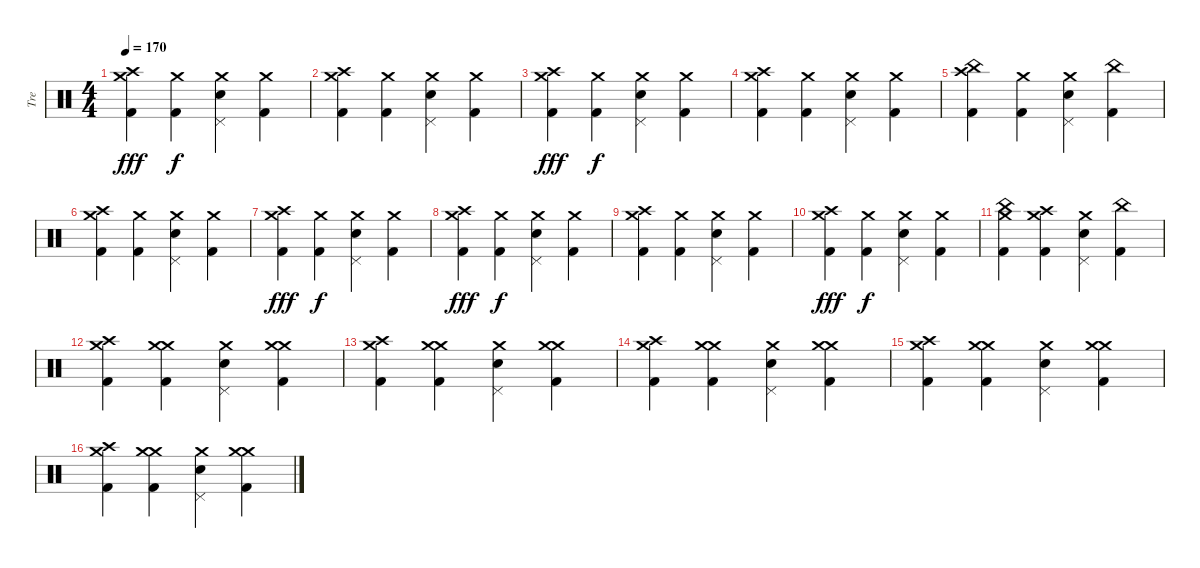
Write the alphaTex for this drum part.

\track ("Tre" "Tre") {instrument percussion}
\staff {score}
\articulation defaults
\ts (4 4)
\tempo 170
\clef neutral
\ks c
("Crash medium (hit)" "Crash high (hit)" "Kick (hit) 2").4{dy fff} ("Crash medium (hit)" "Kick (hit) 2").4{dy f} ("Crash medium (hit)" "Snare (hit) 2" "Pedal Hi-Hat (hit)").4 ("Crash medium (hit)" "Kick (hit) 2").4 |
("Crash medium (hit)" "Crash high (hit)" "Kick (hit) 2").4 ("Crash medium (hit)" "Kick (hit) 2").4 ("Crash medium (hit)" "Snare (hit) 2" "Pedal Hi-Hat (hit)").4 ("Crash medium (hit)" "Kick (hit) 2").4 |
("Crash medium (hit)" "Crash high (hit)" "Kick (hit) 2").4{dy fff} ("Crash medium (hit)" "Kick (hit) 2").4{dy f} ("Crash medium (hit)" "Snare (hit) 2" "Pedal Hi-Hat (hit)").4 ("Crash medium (hit)" "Kick (hit) 2").4 |
("Crash medium (hit)" "Crash high (hit)" "Kick (hit) 2").4 ("Crash medium (hit)" "Kick (hit) 2").4 ("Crash medium (hit)" "Snare (hit) 2" "Pedal Hi-Hat (hit)").4 ("Crash medium (hit)" "Kick (hit) 2").4 |
("China (hit)" "Crash high (hit)" "Kick (hit) 2").4 ("Crash medium (hit)" "Kick (hit) 2").4 ("Crash medium (hit)" "Snare (hit) 2" "Pedal Hi-Hat (hit)").4 ("China (hit)" "Kick (hit) 2").4 |
("Crash medium (hit)" "Crash high (hit)" "Kick (hit) 2").4 ("Crash medium (hit)" "Kick (hit) 2").4 ("Crash medium (hit)" "Snare (hit) 2" "Pedal Hi-Hat (hit)").4 ("Crash medium (hit)" "Kick (hit) 2").4 |
("Crash medium (hit)" "Crash high (hit)" "Kick (hit) 2").4{dy fff} ("Crash medium (hit)" "Kick (hit) 2").4{dy f} ("Crash medium (hit)" "Snare (hit) 2" "Pedal Hi-Hat (hit)").4 ("Crash medium (hit)" "Kick (hit) 2").4 |
("Crash medium (hit)" "Crash high (hit)" "Kick (hit) 2").4{dy fff} ("Crash medium (hit)" "Kick (hit) 2").4{dy f} ("Crash medium (hit)" "Snare (hit) 2" "Pedal Hi-Hat (hit)").4 ("Crash medium (hit)" "Kick (hit) 2").4 |
("Crash medium (hit)" "Crash high (hit)" "Kick (hit) 2").4 ("Crash medium (hit)" "Kick (hit) 2").4 ("Crash medium (hit)" "Snare (hit) 2" "Pedal Hi-Hat (hit)").4 ("Crash medium (hit)" "Kick (hit) 2").4 |
("Crash medium (hit)" "Crash high (hit)" "Kick (hit) 2").4{dy fff} ("Crash medium (hit)" "Kick (hit) 2").4{dy f} ("Crash medium (hit)" "Snare (hit) 2" "Pedal Hi-Hat (hit)").4 ("Crash medium (hit)" "Kick (hit) 2").4 |
("China (hit)" "Crash medium (hit)" "Kick (hit) 2").4 ("Crash high (hit)" "Crash medium (hit)" "Kick (hit) 2").4 ("Crash medium (hit)" "Snare (hit) 2" "Pedal Hi-Hat (hit)").4 ("China (hit)" "Kick (hit) 2").4 |
("Crash medium (hit)" "Crash high (hit)" "Kick (hit) 2").4 ("Crash medium (hit)" "Crash medium (hit)" "Kick (hit) 2").4 ("Crash medium (hit)" "Snare (hit) 2" "Pedal Hi-Hat (hit)").4 ("Crash medium (hit)" "Crash medium (hit)" "Kick (hit) 2").4 |
("Crash medium (hit)" "Crash high (hit)" "Kick (hit) 2").4 ("Crash medium (hit)" "Crash medium (hit)" "Kick (hit) 2").4 ("Crash medium (hit)" "Snare (hit) 2" "Pedal Hi-Hat (hit)").4 ("Crash medium (hit)" "Crash medium (hit)" "Kick (hit) 2").4 |
("Crash medium (hit)" "Crash high (hit)" "Kick (hit) 2").4 ("Crash medium (hit)" "Crash medium (hit)" "Kick (hit) 2").4 ("Crash medium (hit)" "Snare (hit) 2" "Pedal Hi-Hat (hit)").4 ("Crash medium (hit)" "Crash medium (hit)" "Kick (hit) 2").4 |
("Crash medium (hit)" "Crash high (hit)" "Kick (hit) 2").4 ("Crash medium (hit)" "Crash medium (hit)" "Kick (hit) 2").4 ("Crash medium (hit)" "Snare (hit) 2" "Pedal Hi-Hat (hit)").4 ("Crash medium (hit)" "Crash medium (hit)" "Kick (hit) 2").4 |
("Crash medium (hit)" "Crash high (hit)" "Kick (hit) 2").4 ("Crash medium (hit)" "Crash medium (hit)" "Kick (hit) 2").4 ("Crash medium (hit)" "Snare (hit) 2" "Pedal Hi-Hat (hit)").4 ("Crash medium (hit)" "Crash medium (hit)" "Kick (hit) 2").4
